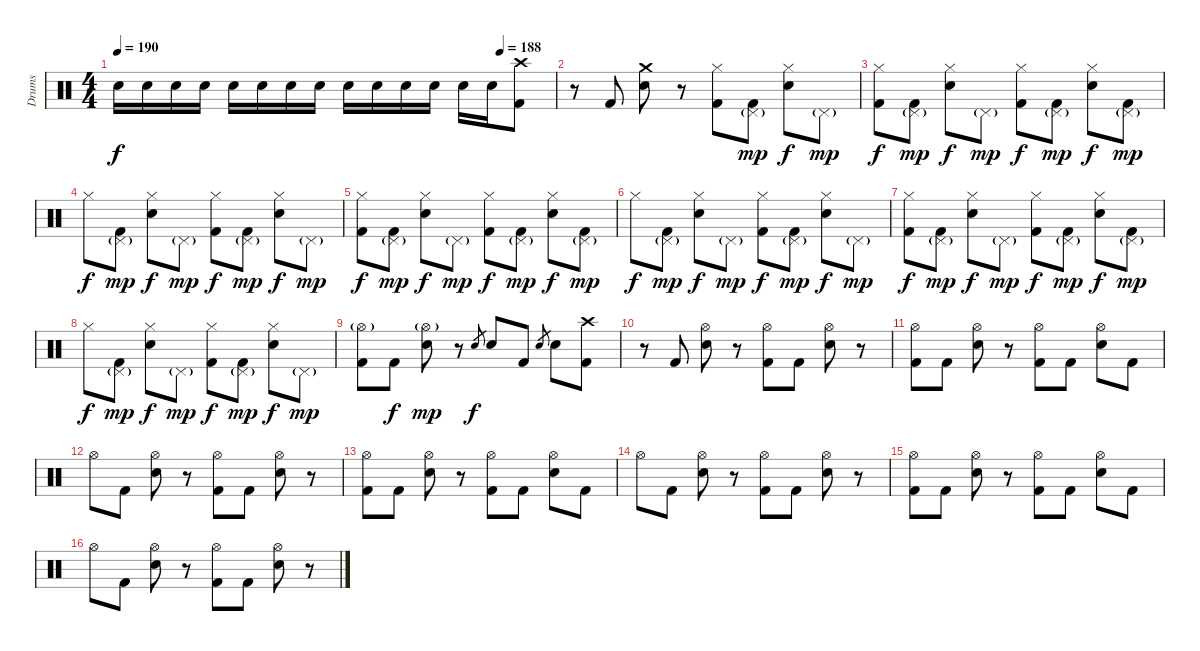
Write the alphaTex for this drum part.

\track ("Drums" "Drums") {instrument percussion}
\staff {score}
\articulation defaults
\ts (4 4)
\tempo 190
\tempo (188 0.875)
\clef neutral
\ks c "Electric Snare (hit)".16{dy f} "Electric Snare (hit)".16 "Electric Snare (hit)".16 "Electric Snare (hit)".16 "Electric Snare (hit)".16 "Electric Snare (hit)".16 "Electric Snare (hit)".16 "Electric Snare (hit)".16 "Electric Snare (hit)".16 "Electric Snare (hit)".16 "Electric Snare (hit)".16 "Electric Snare (hit)".16 "Electric Snare (hit)".16 "Electric Snare (hit)".16
("Crash high (hit)" "Kick (hit) 2").8 |
r.8 "Kick (hit) 2".8 ("Crash medium (hit)" "Electric Snare (hit)").8 r.8 ("Hi-Hat (closed)" "Kick (hit) 2").8 ("Pedal Hi-Hat (hit)"{g} "Kick (hit) 2").8{dy mp} ("Hi-Hat (closed)" "Electric Snare (hit)").8{dy f} "Pedal Hi-Hat (hit)"{g}.8{dy mp} |
("Hi-Hat (closed)" "Kick (hit) 2").8{dy f} ("Pedal Hi-Hat (hit)"{g} "Kick (hit) 2").8{dy mp} ("Hi-Hat (closed)" "Electric Snare (hit)").8{dy f} "Pedal Hi-Hat (hit)"{g}.8{dy mp} ("Hi-Hat (closed)" "Kick (hit) 2").8{dy f} ("Pedal Hi-Hat (hit)"{g} "Kick (hit) 2").8{dy mp} ("Hi-Hat (closed)" "Electric Snare (hit)").8{dy f} ("Pedal Hi-Hat (hit)"{g} "Kick (hit) 2").8{dy mp} |
"Hi-Hat (closed)".8{dy f} ("Pedal Hi-Hat (hit)"{g} "Kick (hit) 2").8{dy mp} ("Hi-Hat (closed)" "Electric Snare (hit)").8{dy f} "Pedal Hi-Hat (hit)"{g}.8{dy mp} ("Hi-Hat (closed)" "Kick (hit) 2").8{dy f} ("Pedal Hi-Hat (hit)"{g} "Kick (hit) 2").8{dy mp} ("Hi-Hat (closed)" "Electric Snare (hit)").8{dy f} "Pedal Hi-Hat (hit)"{g}.8{dy mp} |
("Hi-Hat (closed)" "Kick (hit) 2").8{dy f} ("Pedal Hi-Hat (hit)"{g} "Kick (hit) 2").8{dy mp} ("Hi-Hat (closed)" "Electric Snare (hit)").8{dy f} "Pedal Hi-Hat (hit)"{g}.8{dy mp} ("Hi-Hat (closed)" "Kick (hit) 2").8{dy f} ("Pedal Hi-Hat (hit)"{g} "Kick (hit) 2").8{dy mp} ("Hi-Hat (closed)" "Electric Snare (hit)").8{dy f} ("Pedal Hi-Hat (hit)"{g} "Kick (hit) 2").8{dy mp} |
"Hi-Hat (closed)".8{dy f} ("Pedal Hi-Hat (hit)"{g} "Kick (hit) 2").8{dy mp} ("Hi-Hat (closed)" "Electric Snare (hit)").8{dy f} "Pedal Hi-Hat (hit)"{g}.8{dy mp} ("Hi-Hat (closed)" "Kick (hit) 2").8{dy f} ("Pedal Hi-Hat (hit)"{g} "Kick (hit) 2").8{dy mp} ("Hi-Hat (closed)" "Electric Snare (hit)").8{dy f} "Pedal Hi-Hat (hit)"{g}.8{dy mp} |
("Hi-Hat (closed)" "Kick (hit) 2").8{dy f} ("Pedal Hi-Hat (hit)"{g} "Kick (hit) 2").8{dy mp} ("Hi-Hat (closed)" "Electric Snare (hit)").8{dy f} "Pedal Hi-Hat (hit)"{g}.8{dy mp} ("Hi-Hat (closed)" "Kick (hit) 2").8{dy f} ("Pedal Hi-Hat (hit)"{g} "Kick (hit) 2").8{dy mp} ("Hi-Hat (closed)" "Electric Snare (hit)").8{dy f} ("Pedal Hi-Hat (hit)"{g} "Kick (hit) 2").8{dy mp} |
"Hi-Hat (closed)".8{dy f} ("Pedal Hi-Hat (hit)"{g} "Kick (hit) 2").8{dy mp} ("Hi-Hat (closed)" "Electric Snare (hit)").8{dy f} "Pedal Hi-Hat (hit)"{g}.8{dy mp} ("Hi-Hat (closed)" "Kick (hit) 2").8{dy f} ("Pedal Hi-Hat (hit)"{g} "Kick (hit) 2").8{dy mp} ("Hi-Hat (closed)" "Electric Snare (hit)").8{dy f} "Pedal Hi-Hat (hit)"{g}.8{dy mp} |
("Hi-Hat (open)"{g} "Kick (hit) 2").8 "Kick (hit) 2".8{dy f} ("Hi-Hat (open)"{g} "Electric Snare (hit)").8{dy mp} r.8 "Electric Snare (hit)".8{gr dy f} "Electric Snare (hit)".8 "Kick (hit) 2".8 "Electric Snare (hit)".8{gr} "Electric Snare (hit)".8 ("Crash high (hit)" "Kick (hit) 2").8 |
r.8 "Kick (hit) 2".8 ("Hi-Hat (open)" "Electric Snare (hit)").8 r.8 ("Hi-Hat (open)" "Kick (hit) 2").8 "Kick (hit) 2".8 ("Hi-Hat (open)" "Electric Snare (hit)").8 r.8 |
("Hi-Hat (open)" "Kick (hit) 2").8 "Kick (hit) 2".8 ("Hi-Hat (open)" "Electric Snare (hit)").8 r.8 ("Hi-Hat (open)" "Kick (hit) 2").8 "Kick (hit) 2".8 ("Hi-Hat (open)" "Electric Snare (hit)").8 "Kick (hit) 2".8 |
"Hi-Hat (open)".8 "Kick (hit) 2".8 ("Hi-Hat (open)" "Electric Snare (hit)").8 r.8 ("Hi-Hat (open)" "Kick (hit) 2").8 "Kick (hit) 2".8 ("Hi-Hat (open)" "Electric Snare (hit)").8 r.8 |
("Hi-Hat (open)" "Kick (hit) 2").8 "Kick (hit) 2".8 ("Hi-Hat (open)" "Electric Snare (hit)").8 r.8 ("Hi-Hat (open)" "Kick (hit) 2").8 "Kick (hit) 2".8 ("Hi-Hat (open)" "Electric Snare (hit)").8 "Kick (hit) 2".8 |
"Hi-Hat (open)".8 "Kick (hit) 2".8 ("Hi-Hat (open)" "Electric Snare (hit)").8 r.8 ("Hi-Hat (open)" "Kick (hit) 2").8 "Kick (hit) 2".8 ("Hi-Hat (open)" "Electric Snare (hit)").8 r.8 |
("Hi-Hat (open)" "Kick (hit) 2").8 "Kick (hit) 2".8 ("Hi-Hat (open)" "Electric Snare (hit)").8 r.8 ("Hi-Hat (open)" "Kick (hit) 2").8 "Kick (hit) 2".8 ("Hi-Hat (open)" "Electric Snare (hit)").8 "Kick (hit) 2".8 |
"Hi-Hat (open)".8 "Kick (hit) 2".8 ("Hi-Hat (open)" "Electric Snare (hit)").8 r.8 ("Hi-Hat (open)" "Kick (hit) 2").8 "Kick (hit) 2".8 ("Hi-Hat (open)" "Electric Snare (hit)").8 r.8
